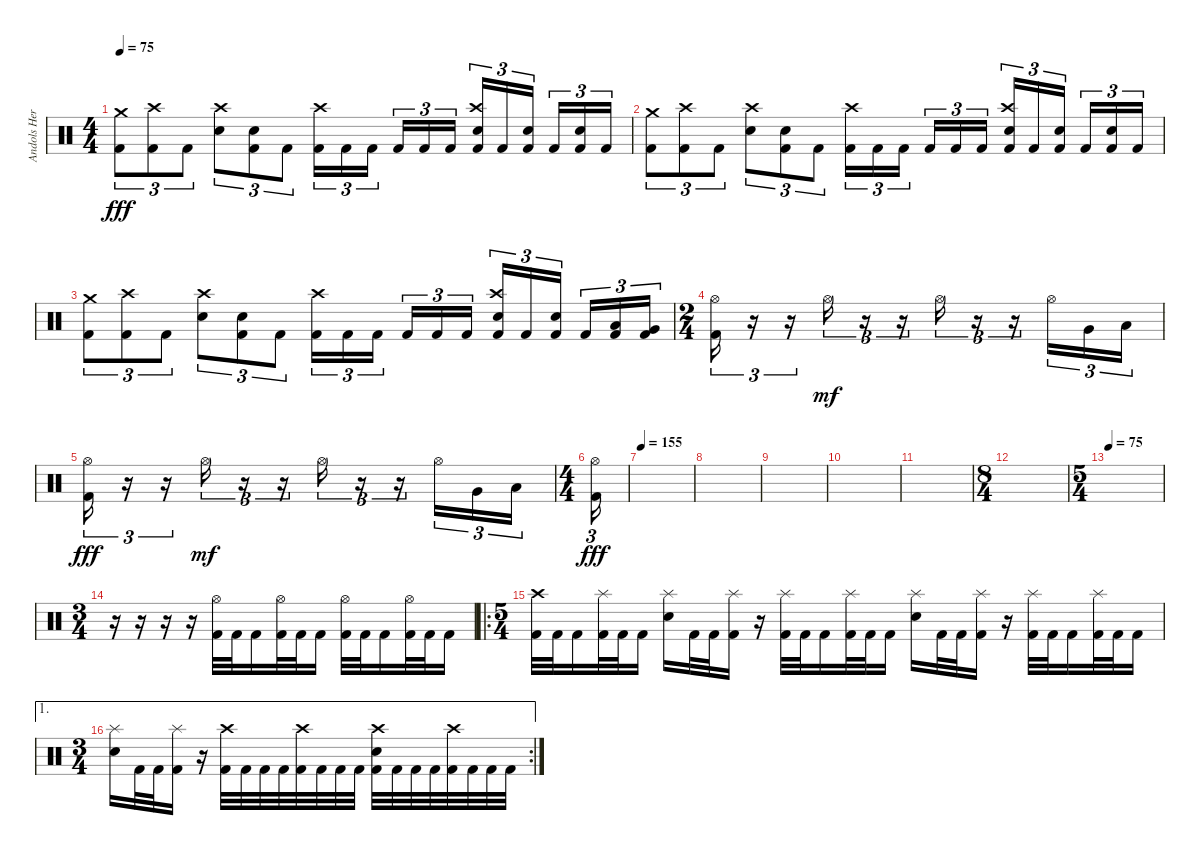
\track ("Andols Herrick" "Andols Her") {instrument percussion}
\staff {score}
\articulation defaults
\ts (4 4)
\tempo 75
\clef neutral
\ks c
("Crash medium (hit)" "Kick (hit) 2").8{tu (3 2) dy fff} ("Crash high (hit)" "Kick (hit) 2").8{tu (3 2)} "Kick (hit) 2".8{tu (3 2)} ("Crash high (hit)" "Snare (hit) 2").8{tu (3 2)} ("Snare (hit) 2" "Kick (hit) 2").8{tu (3 2)} "Kick (hit) 2".8{tu (3 2)} ("Crash high (hit)" "Kick (hit) 2").16{tu (3 2)} "Kick (hit) 2".16{tu (3 2)} "Kick (hit) 2".16{tu (3 2) beam splitsecondary} "Kick (hit) 2".16{tu (3 2)} "Kick (hit) 2".16{tu (3 2)} "Kick (hit) 2".16{tu (3 2)} ("Crash high (hit)" "Snare (hit) 2" "Kick (hit) 2").16{tu (3 2)} "Kick (hit) 2".16{tu (3 2)} ("Snare (hit) 2" "Kick (hit) 2").16{tu (3 2) beam splitsecondary} "Kick (hit) 2".16{tu (3 2)} ("Snare (hit) 2" "Kick (hit) 2").16{tu (3 2)} "Kick (hit) 2".16{tu (3 2)} |
("Crash medium (hit)" "Kick (hit) 2").8{tu (3 2)} ("Crash high (hit)" "Kick (hit) 2").8{tu (3 2)} "Kick (hit) 2".8{tu (3 2)} ("Crash high (hit)" "Snare (hit) 2").8{tu (3 2)} ("Snare (hit) 2" "Kick (hit) 2").8{tu (3 2)} "Kick (hit) 2".8{tu (3 2)} ("Crash high (hit)" "Kick (hit) 2").16{tu (3 2)} "Kick (hit) 2".16{tu (3 2)} "Kick (hit) 2".16{tu (3 2) beam splitsecondary} "Kick (hit) 2".16{tu (3 2)} "Kick (hit) 2".16{tu (3 2)} "Kick (hit) 2".16{tu (3 2)} ("Crash high (hit)" "Snare (hit) 2" "Kick (hit) 2").16{tu (3 2)} "Kick (hit) 2".16{tu (3 2)} ("Snare (hit) 2" "Kick (hit) 2").16{tu (3 2) beam splitsecondary} "Kick (hit) 2".16{tu (3 2)} ("Snare (hit) 2" "Kick (hit) 2").16{tu (3 2)} "Kick (hit) 2".16{tu (3 2)} |
("Crash medium (hit)" "Kick (hit) 2").8{tu (3 2)} ("Crash high (hit)" "Kick (hit) 2").8{tu (3 2)} "Kick (hit) 2".8{tu (3 2)} ("Crash high (hit)" "Snare (hit) 2").8{tu (3 2)} ("Snare (hit) 2" "Kick (hit) 2").8{tu (3 2)} "Kick (hit) 2".8{tu (3 2)} ("Crash high (hit)" "Kick (hit) 2").16{tu (3 2)} "Kick (hit) 2".16{tu (3 2)} "Kick (hit) 2".16{tu (3 2) beam splitsecondary} "Kick (hit) 2".16{tu (3 2)} "Kick (hit) 2".16{tu (3 2)} "Kick (hit) 2".16{tu (3 2)} ("Crash high (hit)" "Snare (hit) 2" "Kick (hit) 2").16{tu (3 2)} "Kick (hit) 2".16{tu (3 2)} ("Snare (hit) 2" "Kick (hit) 2").16{tu (3 2) beam splitsecondary} "Kick (hit) 2".16{tu (3 2)} ("Low Tom (hit)" "Kick (hit) 2").16{tu (3 2)} ("Very Low Tom (hit)" "Kick (hit) 2").16{tu (3 2)} |
\ts (2 4)
("Hi-Hat (open)" "Kick (hit) 2").16{tu (3 2)} r.16{tu (3 2)} r.16{tu (3 2)} "Hi-Hat (open)".16{tu (3 2) dy mf} r.16{tu (3 2)} r.16{tu (3 2)} "Hi-Hat (open)".16{tu (3 2)} r.16{tu (3 2)} r.16{tu (3 2)} "Hi-Hat (open)".16{tu (3 2)} "Very Low Tom (hit)".16{tu (3 2)} "Low Floor Tom (hit)".16{tu (3 2)} |
("Hi-Hat (open)" "Kick (hit) 2").16{tu (3 2) dy fff} r.16{tu (3 2)} r.16{tu (3 2)} "Hi-Hat (open)".16{tu (3 2) dy mf} r.16{tu (3 2)} r.16{tu (3 2)} "Hi-Hat (open)".16{tu (3 2)} r.16{tu (3 2)} r.16{tu (3 2)} "Hi-Hat (open)".16{tu (3 2)} "Very Low Tom (hit)".16{tu (3 2)} "Low Floor Tom (hit)".16{tu (3 2)} |
\ts (4 4)
("Hi-Hat (open)" "Kick (hit) 2").16{tu (3 2) dy fff} |
\tempo 155
|
|
|
|
|
\ts (8 4)
|
\ts (5 4)
\tempo 75
|
\ts (3 4)
r.16 r.16 r.16 r.16 ("Hi-Hat (open)" "Kick (hit) 2").32 "Kick (hit) 2".32 "Kick (hit) 2".16 ("Hi-Hat (open)" "Kick (hit) 2").32 "Kick (hit) 2".32 "Kick (hit) 2".16 ("Hi-Hat (open)" "Kick (hit) 2").32 "Kick (hit) 2".32 "Kick (hit) 2".16 ("Hi-Hat (open)" "Kick (hit) 2").32 "Kick (hit) 2".32 "Kick (hit) 2".16 |
\ro
\ts (5 4)
("Crash high (hit)" "Kick (hit) 2").32 "Kick (hit) 2".32 "Kick (hit) 2".16 ("Splash (hit)" "Kick (hit) 2").32 "Kick (hit) 2".32 "Kick (hit) 2".16 ("Splash (hit)" "Snare (hit) 2").16 "Kick (hit) 2".32 "Kick (hit) 2".32 ("Splash (hit)" "Kick (hit) 2").16 r.16 ("Splash (hit)" "Kick (hit) 2").32 "Kick (hit) 2".32 "Kick (hit) 2".16 ("Splash (hit)" "Kick (hit) 2").32 "Kick (hit) 2".32 "Kick (hit) 2".16 ("Splash (hit)" "Snare (hit) 2").16 "Kick (hit) 2".32 "Kick (hit) 2".32 ("Splash (hit)" "Kick (hit) 2").16 r.16 ("Splash (hit)" "Kick (hit) 2").32 "Kick (hit) 2".32 "Kick (hit) 2".16 ("Splash (hit)" "Kick (hit) 2").32 "Kick (hit) 2".32 "Kick (hit) 2".16 |
\ae 1
\rc 2
\ts (3 4)
("Splash (hit)" "Snare (hit) 2").16 "Kick (hit) 2".32 "Kick (hit) 2".32 ("Splash (hit)" "Kick (hit) 2").16 r.16 ("Crash high (hit)" "Kick (hit) 2").32 "Kick (hit) 2".32 "Kick (hit) 2".32 "Kick (hit) 2".32 ("Crash high (hit)" "Kick (hit) 2").32 "Kick (hit) 2".32 "Kick (hit) 2".32 "Kick (hit) 2".32 ("Crash high (hit)" "Snare (hit) 2" "Kick (hit) 2").32 "Kick (hit) 2".32 "Kick (hit) 2".32 "Kick (hit) 2".32 ("Crash high (hit)" "Kick (hit) 2").32 "Kick (hit) 2".32 "Kick (hit) 2".32 "Kick (hit) 2".32
